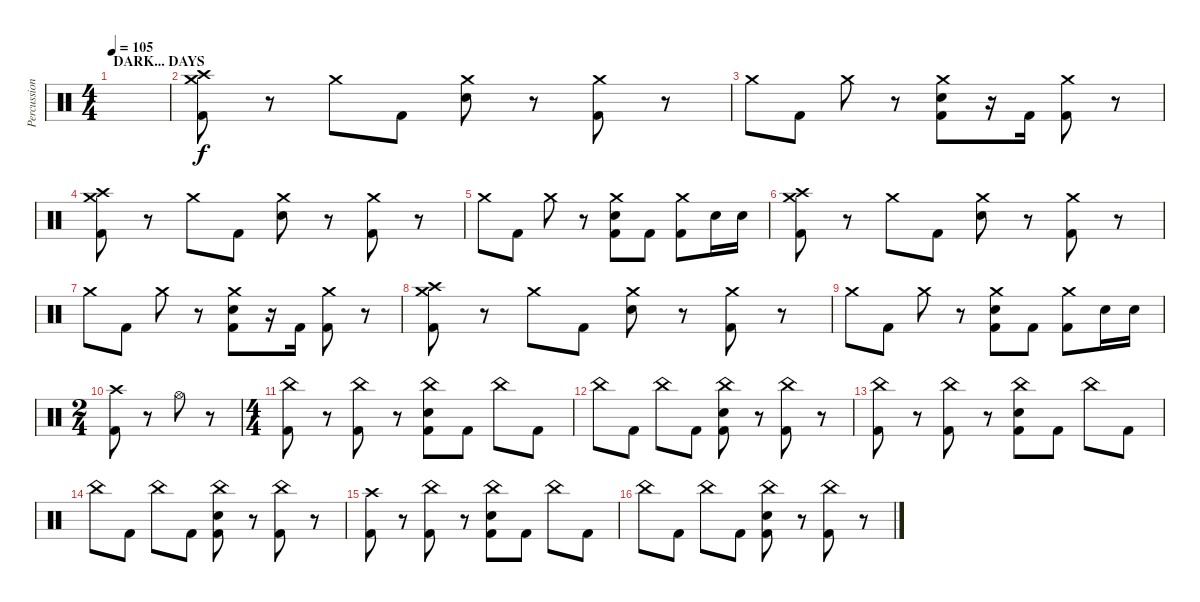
\track ("Percussion" "Percussion") {instrument percussion}
\staff {score}
\articulation defaults
\ts (4 4)
\section ("" "DARK... DAYS")
\tempo 105
\clef neutral
\ks c
|
("Crash medium (hit)" "Crash high (hit)" "Kick (hit) 2").8{dy f} r.8 "Crash medium (hit)".8 "Kick (hit) 2".8 ("Crash medium (hit)" "Electric Snare (hit)").8 r.8 ("Crash medium (hit)" "Kick (hit) 2").8 r.8 |
"Crash medium (hit)".8 "Kick (hit) 2".8 "Crash medium (hit)".8 r.8 ("Crash medium (hit)" "Electric Snare (hit)" "Kick (hit) 2").8 r.16 "Kick (hit) 2".16 ("Crash medium (hit)" "Kick (hit) 2").8 r.8 |
("Crash medium (hit)" "Crash high (hit)" "Kick (hit) 2").8 r.8 "Crash medium (hit)".8 "Kick (hit) 2".8 ("Crash medium (hit)" "Electric Snare (hit)").8 r.8 ("Crash medium (hit)" "Kick (hit) 2").8 r.8 |
"Crash medium (hit)".8 "Kick (hit) 2".8 "Crash medium (hit)".8 r.8 ("Crash medium (hit)" "Electric Snare (hit)" "Kick (hit) 2").8 "Kick (hit) 2".8 ("Crash medium (hit)" "Kick (hit) 2").8 "Electric Snare (hit)".16 "Electric Snare (hit)".16 |
("Crash medium (hit)" "Crash high (hit)" "Kick (hit) 2").8 r.8 "Crash medium (hit)".8 "Kick (hit) 2".8 ("Crash medium (hit)" "Electric Snare (hit)").8 r.8 ("Crash medium (hit)" "Kick (hit) 2").8 r.8 |
"Crash medium (hit)".8 "Kick (hit) 2".8 "Crash medium (hit)".8 r.8 ("Crash medium (hit)" "Electric Snare (hit)" "Kick (hit) 2").8 r.16 "Kick (hit) 2".16 ("Crash medium (hit)" "Kick (hit) 2").8 r.8 |
("Crash medium (hit)" "Crash high (hit)" "Kick (hit) 2").8 r.8 "Crash medium (hit)".8 "Kick (hit) 2".8 ("Crash medium (hit)" "Electric Snare (hit)").8 r.8 ("Crash medium (hit)" "Kick (hit) 2").8 r.8 |
"Crash medium (hit)".8 "Kick (hit) 2".8 "Crash medium (hit)".8 r.8 ("Crash medium (hit)" "Electric Snare (hit)" "Kick (hit) 2").8 "Kick (hit) 2".8 ("Crash medium (hit)" "Kick (hit) 2").8 "Electric Snare (hit)".16 "Electric Snare (hit)".16 |
\ts (2 4)
("Crash high (hit)" "Kick (hit) 2").8 r.8 "Hi-Hat (open)".8 r.8 |
\ts (4 4)
("China (hit)" "Kick (hit) 2").8 r.8 ("China (hit)" "Kick (hit) 2").8 r.8 ("China (hit)" "Electric Snare (hit)" "Kick (hit) 2").8 "Kick (hit) 2".8 "China (hit)".8 "Kick (hit) 2".8 |
"China (hit)".8 "Kick (hit) 2".8 "China (hit)".8 "Kick (hit) 2".8 ("China (hit)" "Electric Snare (hit)" "Kick (hit) 2").8 r.8 ("China (hit)" "Kick (hit) 2").8 r.8 |
("China (hit)" "Kick (hit) 2").8 r.8 ("China (hit)" "Kick (hit) 2").8 r.8 ("China (hit)" "Electric Snare (hit)" "Kick (hit) 2").8 "Kick (hit) 2".8 "China (hit)".8 "Kick (hit) 2".8 |
"China (hit)".8 "Kick (hit) 2".8 "China (hit)".8 "Kick (hit) 2".8 ("China (hit)" "Electric Snare (hit)" "Kick (hit) 2").8 r.8 ("China (hit)" "Kick (hit) 2").8 r.8 |
("Crash high (hit)" "Kick (hit) 2").8 r.8 ("China (hit)" "Kick (hit) 2").8 r.8 ("China (hit)" "Electric Snare (hit)" "Kick (hit) 2").8 "Kick (hit) 2".8 "China (hit)".8 "Kick (hit) 2".8 |
"China (hit)".8 "Kick (hit) 2".8 "China (hit)".8 "Kick (hit) 2".8 ("China (hit)" "Electric Snare (hit)" "Kick (hit) 2").8 r.8 ("China (hit)" "Kick (hit) 2").8 r.8
